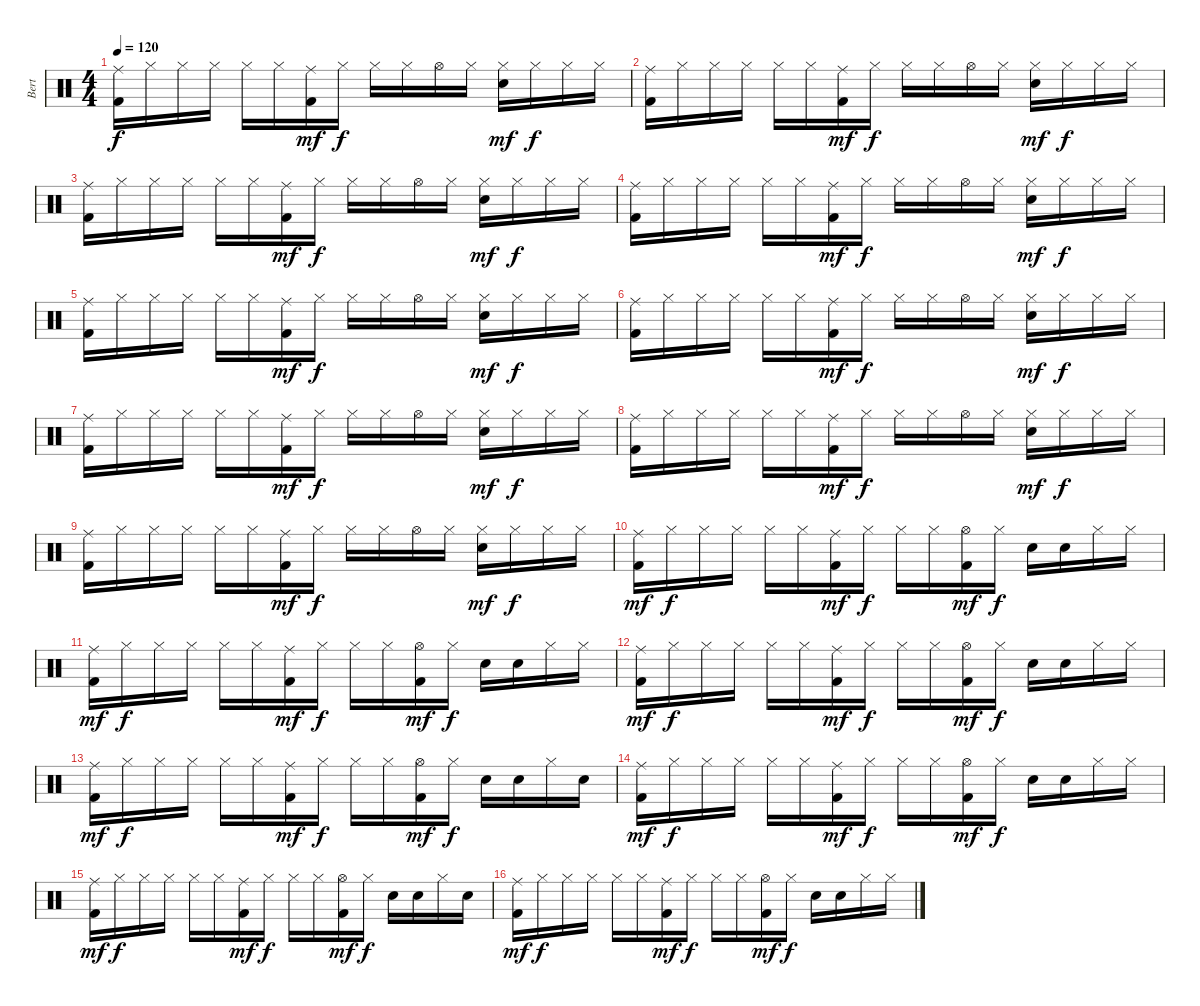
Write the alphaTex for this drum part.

\track ("Bert" "Bert") {instrument percussion}
\staff {score}
\articulation defaults
\ts (4 4)
\tempo 120
\clef neutral
\ks c
("Ride (middle)" "Kick (hit) 2").16{dy f} "Hi-Hat (closed)".16 "Hi-Hat (closed)".16 "Hi-Hat (closed)".16 "Hi-Hat (closed)".16 "Hi-Hat (closed)".16 ("Ride (middle)" "Kick (hit) 2").16{dy mf} "Hi-Hat (closed)".16{dy f} "Hi-Hat (closed)".16 "Hi-Hat (closed)".16 "Hi-Hat (open)".16 "Hi-Hat (closed)".16 ("Hi-Hat (closed)" "Snare (hit) 2").16{dy mf} "Hi-Hat (closed)".16{dy f} "Hi-Hat (closed)".16 "Hi-Hat (closed)".16 |
("Ride (middle)" "Kick (hit) 2").16 "Hi-Hat (closed)".16 "Hi-Hat (closed)".16 "Hi-Hat (closed)".16 "Hi-Hat (closed)".16 "Hi-Hat (closed)".16 ("Ride (middle)" "Kick (hit) 2").16{dy mf} "Hi-Hat (closed)".16{dy f} "Hi-Hat (closed)".16 "Hi-Hat (closed)".16 "Hi-Hat (open)".16 "Hi-Hat (closed)".16 ("Hi-Hat (closed)" "Snare (hit) 2").16{dy mf} "Hi-Hat (closed)".16{dy f} "Hi-Hat (closed)".16 "Hi-Hat (closed)".16 |
("Ride (middle)" "Kick (hit) 2").16 "Hi-Hat (closed)".16 "Hi-Hat (closed)".16 "Hi-Hat (closed)".16 "Hi-Hat (closed)".16 "Hi-Hat (closed)".16 ("Ride (middle)" "Kick (hit) 2").16{dy mf} "Hi-Hat (closed)".16{dy f} "Hi-Hat (closed)".16 "Hi-Hat (closed)".16 "Hi-Hat (open)".16 "Hi-Hat (closed)".16 ("Hi-Hat (closed)" "Snare (hit) 2").16{dy mf} "Hi-Hat (closed)".16{dy f} "Hi-Hat (closed)".16 "Hi-Hat (closed)".16 |
("Ride (middle)" "Kick (hit) 2").16 "Hi-Hat (closed)".16 "Hi-Hat (closed)".16 "Hi-Hat (closed)".16 "Hi-Hat (closed)".16 "Hi-Hat (closed)".16 ("Ride (middle)" "Kick (hit) 2").16{dy mf} "Hi-Hat (closed)".16{dy f} "Hi-Hat (closed)".16 "Hi-Hat (closed)".16 "Hi-Hat (open)".16 "Hi-Hat (closed)".16 ("Hi-Hat (closed)" "Snare (hit) 2").16{dy mf} "Hi-Hat (closed)".16{dy f} "Hi-Hat (closed)".16 "Hi-Hat (closed)".16 |
("Ride (middle)" "Kick (hit) 2").16 "Hi-Hat (closed)".16 "Hi-Hat (closed)".16 "Hi-Hat (closed)".16 "Hi-Hat (closed)".16 "Hi-Hat (closed)".16 ("Ride (middle)" "Kick (hit) 2").16{dy mf} "Hi-Hat (closed)".16{dy f} "Hi-Hat (closed)".16 "Hi-Hat (closed)".16 "Hi-Hat (open)".16 "Hi-Hat (closed)".16 ("Hi-Hat (closed)" "Snare (hit) 2").16{dy mf} "Hi-Hat (closed)".16{dy f} "Hi-Hat (closed)".16 "Hi-Hat (closed)".16 |
("Ride (middle)" "Kick (hit) 2").16 "Hi-Hat (closed)".16 "Hi-Hat (closed)".16 "Hi-Hat (closed)".16 "Hi-Hat (closed)".16 "Hi-Hat (closed)".16 ("Ride (middle)" "Kick (hit) 2").16{dy mf} "Hi-Hat (closed)".16{dy f} "Hi-Hat (closed)".16 "Hi-Hat (closed)".16 "Hi-Hat (open)".16 "Hi-Hat (closed)".16 ("Hi-Hat (closed)" "Snare (hit) 2").16{dy mf} "Hi-Hat (closed)".16{dy f} "Hi-Hat (closed)".16 "Hi-Hat (closed)".16 |
("Ride (middle)" "Kick (hit) 2").16 "Hi-Hat (closed)".16 "Hi-Hat (closed)".16 "Hi-Hat (closed)".16 "Hi-Hat (closed)".16 "Hi-Hat (closed)".16 ("Ride (middle)" "Kick (hit) 2").16{dy mf} "Hi-Hat (closed)".16{dy f} "Hi-Hat (closed)".16 "Hi-Hat (closed)".16 "Hi-Hat (open)".16 "Hi-Hat (closed)".16 ("Hi-Hat (closed)" "Snare (hit) 2").16{dy mf} "Hi-Hat (closed)".16{dy f} "Hi-Hat (closed)".16 "Hi-Hat (closed)".16 |
("Ride (middle)" "Kick (hit) 2").16 "Hi-Hat (closed)".16 "Hi-Hat (closed)".16 "Hi-Hat (closed)".16 "Hi-Hat (closed)".16 "Hi-Hat (closed)".16 ("Ride (middle)" "Kick (hit) 2").16{dy mf} "Hi-Hat (closed)".16{dy f} "Hi-Hat (closed)".16 "Hi-Hat (closed)".16 "Hi-Hat (open)".16 "Hi-Hat (closed)".16 ("Hi-Hat (closed)" "Snare (hit) 2").16{dy mf} "Hi-Hat (closed)".16{dy f} "Hi-Hat (closed)".16 "Hi-Hat (closed)".16 |
("Ride (middle)" "Kick (hit) 2").16 "Hi-Hat (closed)".16 "Hi-Hat (closed)".16 "Hi-Hat (closed)".16 "Hi-Hat (closed)".16 "Hi-Hat (closed)".16 ("Ride (middle)" "Kick (hit) 2").16{dy mf} "Hi-Hat (closed)".16{dy f} "Hi-Hat (closed)".16 "Hi-Hat (closed)".16 "Hi-Hat (open)".16 "Hi-Hat (closed)".16 ("Hi-Hat (closed)" "Snare (hit) 2").16{dy mf} "Hi-Hat (closed)".16{dy f} "Hi-Hat (closed)".16 "Hi-Hat (closed)".16 |
("Ride (middle)" "Kick (hit) 2").16{dy mf} "Hi-Hat (closed)".16{dy f} "Hi-Hat (closed)".16 "Hi-Hat (closed)".16 "Hi-Hat (closed)".16 "Hi-Hat (closed)".16 ("Ride (middle)" "Kick (hit) 2").16{dy mf} "Hi-Hat (closed)".16{dy f} "Hi-Hat (closed)".16 "Hi-Hat (closed)".16 ("Hi-Hat (open)" "Kick (hit) 2").16{dy mf} "Hi-Hat (closed)".16{dy f} "Snare (hit) 2".16 "Snare (hit) 2".16 "Hi-Hat (closed)".16 "Hi-Hat (closed)".16 |
("Ride (middle)" "Kick (hit) 2").16{dy mf} "Hi-Hat (closed)".16{dy f} "Hi-Hat (closed)".16 "Hi-Hat (closed)".16 "Hi-Hat (closed)".16 "Hi-Hat (closed)".16 ("Ride (middle)" "Kick (hit) 2").16{dy mf} "Hi-Hat (closed)".16{dy f} "Hi-Hat (closed)".16 "Hi-Hat (closed)".16 ("Hi-Hat (open)" "Kick (hit) 2").16{dy mf} "Hi-Hat (closed)".16{dy f} "Snare (hit) 2".16 "Snare (hit) 2".16 "Hi-Hat (closed)".16 "Hi-Hat (closed)".16 |
("Ride (middle)" "Kick (hit) 2").16{dy mf} "Hi-Hat (closed)".16{dy f} "Hi-Hat (closed)".16 "Hi-Hat (closed)".16 "Hi-Hat (closed)".16 "Hi-Hat (closed)".16 ("Ride (middle)" "Kick (hit) 2").16{dy mf} "Hi-Hat (closed)".16{dy f} "Hi-Hat (closed)".16 "Hi-Hat (closed)".16 ("Hi-Hat (open)" "Kick (hit) 2").16{dy mf} "Hi-Hat (closed)".16{dy f} "Snare (hit) 2".16 "Snare (hit) 2".16 "Hi-Hat (closed)".16 "Hi-Hat (closed)".16 |
("Ride (middle)" "Kick (hit) 2").16{dy mf} "Hi-Hat (closed)".16{dy f} "Hi-Hat (closed)".16 "Hi-Hat (closed)".16 "Hi-Hat (closed)".16 "Hi-Hat (closed)".16 ("Ride (middle)" "Kick (hit) 2").16{dy mf} "Hi-Hat (closed)".16{dy f} "Hi-Hat (closed)".16 "Hi-Hat (closed)".16 ("Hi-Hat (open)" "Kick (hit) 2").16{dy mf} "Hi-Hat (closed)".16{dy f} "Snare (hit) 2".16 "Snare (hit) 2".16 "Hi-Hat (closed)".16 "Snare (hit) 2".16 |
("Ride (middle)" "Kick (hit) 2").16{dy mf} "Hi-Hat (closed)".16{dy f} "Hi-Hat (closed)".16 "Hi-Hat (closed)".16 "Hi-Hat (closed)".16 "Hi-Hat (closed)".16 ("Ride (middle)" "Kick (hit) 2").16{dy mf} "Hi-Hat (closed)".16{dy f} "Hi-Hat (closed)".16 "Hi-Hat (closed)".16 ("Hi-Hat (open)" "Kick (hit) 2").16{dy mf} "Hi-Hat (closed)".16{dy f} "Snare (hit) 2".16 "Snare (hit) 2".16 "Hi-Hat (closed)".16 "Hi-Hat (closed)".16 |
("Ride (middle)" "Kick (hit) 2").16{dy mf} "Hi-Hat (closed)".16{dy f} "Hi-Hat (closed)".16 "Hi-Hat (closed)".16 "Hi-Hat (closed)".16 "Hi-Hat (closed)".16 ("Ride (middle)" "Kick (hit) 2").16{dy mf} "Hi-Hat (closed)".16{dy f} "Hi-Hat (closed)".16 "Hi-Hat (closed)".16 ("Hi-Hat (open)" "Kick (hit) 2").16{dy mf} "Hi-Hat (closed)".16{dy f} "Snare (hit) 2".16 "Snare (hit) 2".16 "Hi-Hat (closed)".16 "Snare (hit) 2".16 |
("Ride (middle)" "Kick (hit) 2").16{dy mf} "Hi-Hat (closed)".16{dy f} "Hi-Hat (closed)".16 "Hi-Hat (closed)".16 "Hi-Hat (closed)".16 "Hi-Hat (closed)".16 ("Ride (middle)" "Kick (hit) 2").16{dy mf} "Hi-Hat (closed)".16{dy f} "Hi-Hat (closed)".16 "Hi-Hat (closed)".16 ("Hi-Hat (open)" "Kick (hit) 2").16{dy mf} "Hi-Hat (closed)".16{dy f} "Snare (hit) 2".16 "Snare (hit) 2".16 "Hi-Hat (closed)".16 "Hi-Hat (closed)".16
